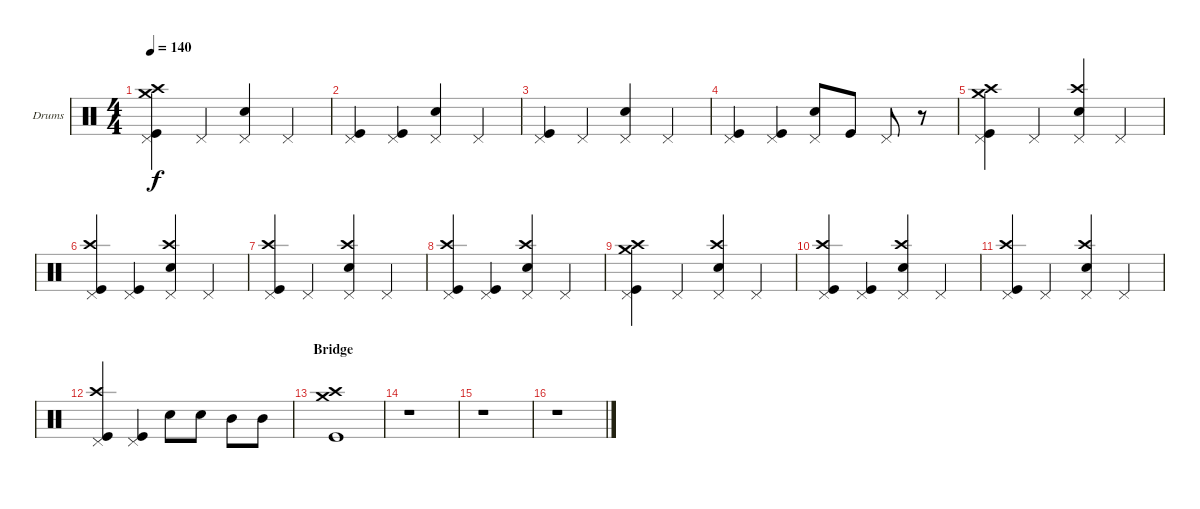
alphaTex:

\bracketExtendMode groupsimilarinstruments
\firstSystemTrackNameOrientation horizontal
\otherSystemsTrackNameOrientation horizontal
\track ("Drumkit" "Drums") {instrument percussion}
\staff {score}
\articulation defaults
\ts (4 4)
\tempo 140
\clef neutral
\ks c
("Crash medium (hit)" "Pedal Hi-Hat (hit)" "Crash high (hit)" "Kick (hit)").4{dy f} "Pedal Hi-Hat (hit)".4 ("Pedal Hi-Hat (hit)" "Snare (hit) 2").4 "Pedal Hi-Hat (hit)".4 |
("Pedal Hi-Hat (hit)" "Kick (hit)").4 ("Pedal Hi-Hat (hit)" "Kick (hit)").4 ("Pedal Hi-Hat (hit)" "Snare (hit) 2").4 "Pedal Hi-Hat (hit)".4 |
("Pedal Hi-Hat (hit)" "Kick (hit)").4 "Pedal Hi-Hat (hit)".4 ("Pedal Hi-Hat (hit)" "Snare (hit) 2").4 "Pedal Hi-Hat (hit)".4 |
("Pedal Hi-Hat (hit)" "Kick (hit)").4 ("Pedal Hi-Hat (hit)" "Kick (hit)").4 ("Pedal Hi-Hat (hit)" "Snare (hit) 2").8 "Kick (hit)".8 "Pedal Hi-Hat (hit)".8 r.8 |
("Crash medium (hit)" "Pedal Hi-Hat (hit)" "Crash high (hit)" "Kick (hit)").4 "Pedal Hi-Hat (hit)".4 ("Crash high (hit)" "Pedal Hi-Hat (hit)" "Snare (hit) 2").4 "Pedal Hi-Hat (hit)".4 |
("Crash high (hit)" "Pedal Hi-Hat (hit)" "Kick (hit)").4 ("Pedal Hi-Hat (hit)" "Kick (hit)").4 ("Crash high (hit)" "Pedal Hi-Hat (hit)" "Snare (hit) 2").4 "Pedal Hi-Hat (hit)".4 |
("Crash high (hit)" "Pedal Hi-Hat (hit)" "Kick (hit)").4 "Pedal Hi-Hat (hit)".4 ("Crash high (hit)" "Pedal Hi-Hat (hit)" "Snare (hit) 2").4 "Pedal Hi-Hat (hit)".4 |
("Crash high (hit)" "Pedal Hi-Hat (hit)" "Kick (hit)").4 ("Pedal Hi-Hat (hit)" "Kick (hit)").4 ("Crash high (hit)" "Pedal Hi-Hat (hit)" "Snare (hit) 2").4 "Pedal Hi-Hat (hit)".4 |
("Crash medium (hit)" "Pedal Hi-Hat (hit)" "Crash high (hit)" "Kick (hit)").4 "Pedal Hi-Hat (hit)".4 ("Crash high (hit)" "Pedal Hi-Hat (hit)" "Snare (hit) 2").4 "Pedal Hi-Hat (hit)".4 |
("Crash high (hit)" "Pedal Hi-Hat (hit)" "Kick (hit)").4 ("Pedal Hi-Hat (hit)" "Kick (hit)").4 ("Crash high (hit)" "Pedal Hi-Hat (hit)" "Snare (hit) 2").4 "Pedal Hi-Hat (hit)".4 |
("Crash high (hit)" "Pedal Hi-Hat (hit)" "Kick (hit)").4 "Pedal Hi-Hat (hit)".4 ("Crash high (hit)" "Pedal Hi-Hat (hit)" "Snare (hit) 2").4 "Pedal Hi-Hat (hit)".4 |
("Crash high (hit)" "Pedal Hi-Hat (hit)" "Kick (hit)").4 ("Pedal Hi-Hat (hit)" "Kick (hit)").4 "Snare (hit) 2".8 "Snare (hit) 2".8 "Mid Tom (hit)".8 "Mid Tom (hit)".8 |
\section ("" "Bridge")
("Crash high (hit)" "Crash medium (hit)" "Kick (hit)").1 |
r.1 |
r.1 |
r.1
